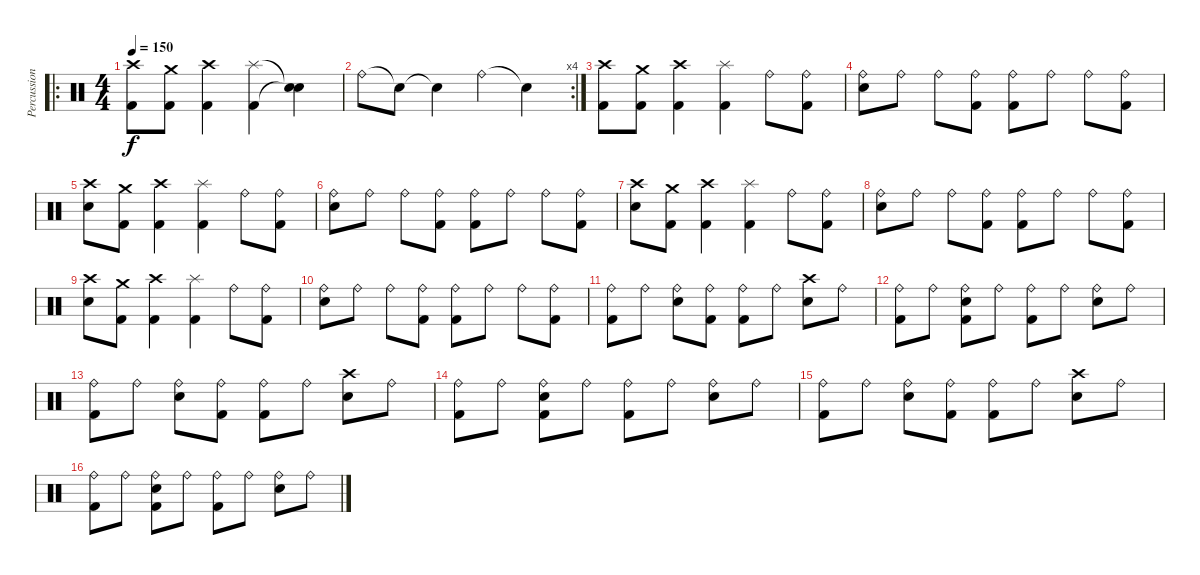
\track ("Percussion" "Percussion") {instrument percussion}
\staff {score}
\articulation defaults
\ro
\ts (4 4)
\tempo 150
\clef neutral
\ks c
("Crash high (hit)" "Kick (hit) 2").8{dy f} ("Crash medium (hit)" "Kick (hit) 2").8 ("Crash high (hit)" "Kick (hit) 2").4 ("Splash (hit)" "Kick (hit) 2").4 ("Snare (hit)"{t} "Snare (hit)"{t}).4 |
\rc 4 "Ride (bell)".8 "Snare (hit)"{t}.8 "Snare (hit)"{t}.4 "Ride (bell)".4 "Snare (hit)"{t}.4
|
("Crash high (hit)" "Kick (hit) 2").8 ("Crash medium (hit)" "Kick (hit) 2").8 ("Crash high (hit)" "Kick (hit) 2").4 ("Splash (hit)" "Kick (hit) 2").4 "Ride (bell)".8 ("Ride (bell)" "Kick (hit) 2").8 |
("Ride (bell)" "Electric Snare (hit)").8 "Ride (bell)".8 "Ride (bell)".8 ("Ride (bell)" "Kick (hit) 2").8 ("Ride (bell)" "Kick (hit) 2").8 "Ride (bell)".8 "Ride (bell)".8 ("Ride (bell)" "Kick (hit) 2").8 |
("Crash high (hit)" "Electric Snare (hit)").8 ("Crash medium (hit)" "Kick (hit) 2").8 ("Crash high (hit)" "Kick (hit) 2").4 ("Splash (hit)" "Kick (hit) 2").4 "Ride (bell)".8 ("Ride (bell)" "Kick (hit) 2").8 |
("Ride (bell)" "Electric Snare (hit)").8 "Ride (bell)".8 "Ride (bell)".8 ("Ride (bell)" "Kick (hit) 2").8 ("Ride (bell)" "Kick (hit) 2").8 "Ride (bell)".8 "Ride (bell)".8 ("Ride (bell)" "Kick (hit) 2").8 |
("Crash high (hit)" "Electric Snare (hit)").8 ("Crash medium (hit)" "Kick (hit) 2").8 ("Crash high (hit)" "Kick (hit) 2").4 ("Splash (hit)" "Kick (hit) 2").4 "Ride (bell)".8 ("Ride (bell)" "Kick (hit) 2").8 |
("Ride (bell)" "Electric Snare (hit)").8 "Ride (bell)".8 "Ride (bell)".8 ("Ride (bell)" "Kick (hit) 2").8 ("Ride (bell)" "Kick (hit) 2").8 "Ride (bell)".8 "Ride (bell)".8 ("Ride (bell)" "Kick (hit) 2").8 |
("Crash high (hit)" "Electric Snare (hit)").8 ("Crash medium (hit)" "Kick (hit) 2").8 ("Crash high (hit)" "Kick (hit) 2").4 ("Splash (hit)" "Kick (hit) 2").4 "Ride (bell)".8 ("Ride (bell)" "Kick (hit) 2").8 |
("Ride (bell)" "Electric Snare (hit)").8 "Ride (bell)".8 "Ride (bell)".8 ("Ride (bell)" "Kick (hit) 2").8 ("Ride (bell)" "Kick (hit) 2").8 "Ride (bell)".8 "Ride (bell)".8 ("Ride (bell)" "Kick (hit) 2").8 |
("Ride (bell)" "Kick (hit) 2").8 "Ride (bell)".8 ("Ride (bell)" "Electric Snare (hit)").8 ("Ride (bell)" "Kick (hit) 2").8 ("Ride (bell)" "Kick (hit) 2").8 "Ride (bell)".8 ("Crash high (hit)" "Electric Snare (hit)").8 "Ride (bell)".8 |
("Ride (bell)" "Kick (hit) 2").8 "Ride (bell)".8 ("Ride (bell)" "Electric Snare (hit)" "Kick (hit) 2").8 "Ride (bell)".8 ("Ride (bell)" "Kick (hit) 2").8 "Ride (bell)".8 ("Ride (bell)" "Electric Snare (hit)").8 "Ride (bell)".8 |
("Ride (bell)" "Kick (hit) 2").8 "Ride (bell)".8 ("Ride (bell)" "Electric Snare (hit)").8 ("Ride (bell)" "Kick (hit) 2").8 ("Ride (bell)" "Kick (hit) 2").8 "Ride (bell)".8 ("Crash high (hit)" "Electric Snare (hit)").8 "Ride (bell)".8 |
("Ride (bell)" "Kick (hit) 2").8 "Ride (bell)".8 ("Ride (bell)" "Electric Snare (hit)" "Kick (hit) 2").8 "Ride (bell)".8 ("Ride (bell)" "Kick (hit) 2").8 "Ride (bell)".8 ("Ride (bell)" "Electric Snare (hit)").8 "Ride (bell)".8 |
("Ride (bell)" "Kick (hit) 2").8 "Ride (bell)".8 ("Ride (bell)" "Electric Snare (hit)").8 ("Ride (bell)" "Kick (hit) 2").8 ("Ride (bell)" "Kick (hit) 2").8 "Ride (bell)".8 ("Crash high (hit)" "Electric Snare (hit)").8 "Ride (bell)".8 |
("Ride (bell)" "Kick (hit) 2").8 "Ride (bell)".8 ("Ride (bell)" "Electric Snare (hit)" "Kick (hit) 2").8 "Ride (bell)".8 ("Ride (bell)" "Kick (hit) 2").8 "Ride (bell)".8 ("Ride (bell)" "Electric Snare (hit)").8 "Ride (bell)".8
